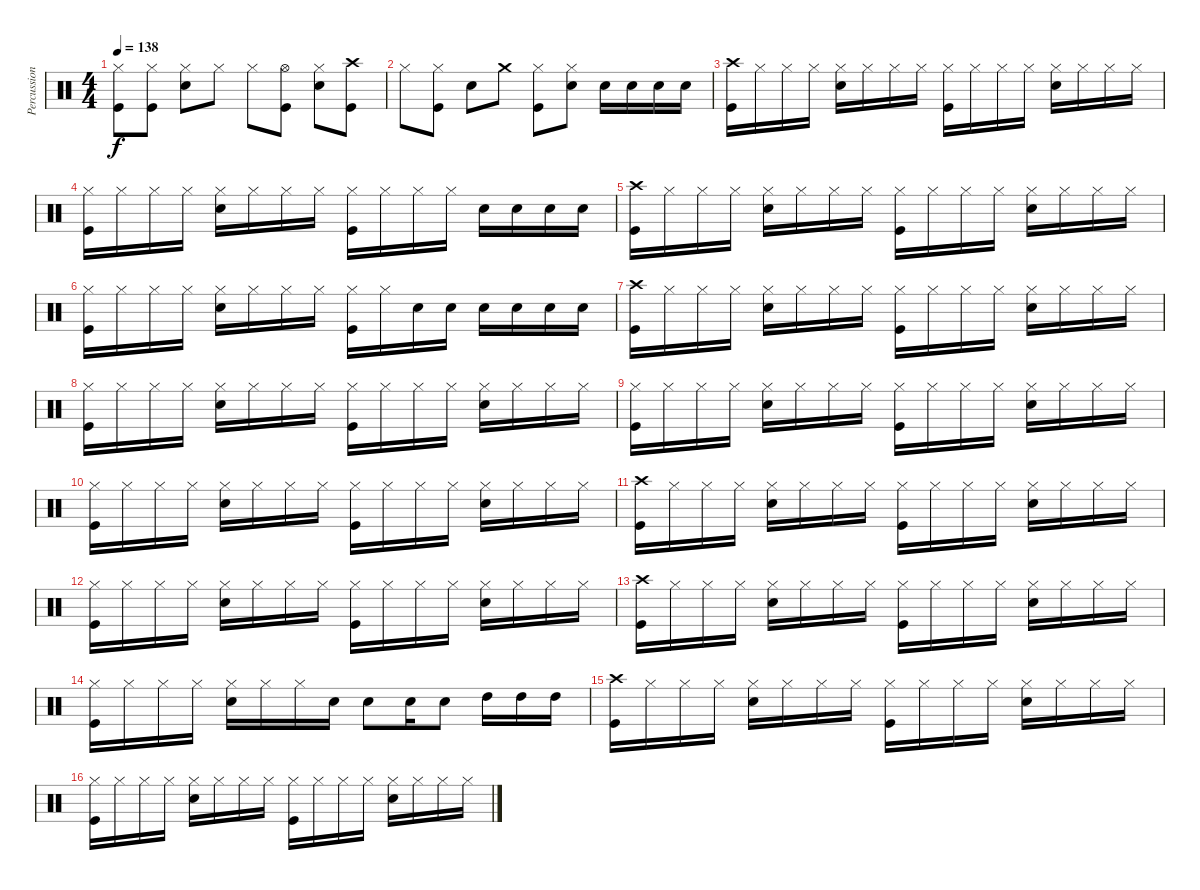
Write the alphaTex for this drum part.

\track ("Percussion" "Percussion") {instrument percussion}
\staff {score}
\articulation defaults
\ts (4 4)
\tempo 138
\clef neutral
\ks c
("Hi-Hat (closed)" "Kick (hit)").8{dy f} ("Hi-Hat (closed)" "Kick (hit)").8 ("Hi-Hat (closed)" "Snare (hit) 2").8 "Hi-Hat (closed)".8 "Hi-Hat (closed)".8 ("Hi-Hat (open)" "Kick (hit)").8 ("Hi-Hat (closed)" "Snare (hit) 2").8 ("Crash high (hit)" "Kick (hit)").8 |
"Hi-Hat (closed)".8 ("Kick (hit)" "Hi-Hat (closed)").8 "Snare (hit) 2".8 "Crash medium (hit)".8 ("Kick (hit)" "Hi-Hat (closed)").8 ("Snare (hit) 2" "Hi-Hat (closed)").8 "Snare (hit) 2".16 "Snare (hit) 2".16 "Snare (hit) 2".16 "Snare (hit) 2".16 |
("Kick (hit)" "Crash high (hit)").16 "Hi-Hat (closed)".16 "Hi-Hat (closed)".16 "Hi-Hat (closed)".16 ("Snare (hit) 2" "Hi-Hat (closed)").16 "Hi-Hat (closed)".16 "Hi-Hat (closed)".16 "Hi-Hat (closed)".16 ("Kick (hit)" "Hi-Hat (closed)").16 "Hi-Hat (closed)".16 "Hi-Hat (closed)".16 "Hi-Hat (closed)".16 ("Snare (hit) 2" "Hi-Hat (closed)").16 "Hi-Hat (closed)".16 "Hi-Hat (closed)".16 "Hi-Hat (closed)".16 |
("Kick (hit)" "Hi-Hat (closed)").16 "Hi-Hat (closed)".16 "Hi-Hat (closed)".16 "Hi-Hat (closed)".16 ("Snare (hit) 2" "Hi-Hat (closed)").16 "Hi-Hat (closed)".16 "Hi-Hat (closed)".16 "Hi-Hat (closed)".16 ("Kick (hit)" "Hi-Hat (closed)").16 "Hi-Hat (closed)".16 "Hi-Hat (closed)".16 "Hi-Hat (closed)".16 "Snare (hit) 2".16 "Snare (hit) 2".16 "Snare (hit) 2".16 "Snare (hit) 2".16 |
("Kick (hit)" "Crash high (hit)").16 "Hi-Hat (closed)".16 "Hi-Hat (closed)".16 "Hi-Hat (closed)".16 ("Snare (hit) 2" "Hi-Hat (closed)").16 "Hi-Hat (closed)".16 "Hi-Hat (closed)".16 "Hi-Hat (closed)".16 ("Kick (hit)" "Hi-Hat (closed)").16 "Hi-Hat (closed)".16 "Hi-Hat (closed)".16 "Hi-Hat (closed)".16 ("Snare (hit) 2" "Hi-Hat (closed)").16 "Hi-Hat (closed)".16 "Hi-Hat (closed)".16 "Hi-Hat (closed)".16 |
("Kick (hit)" "Hi-Hat (closed)").16 "Hi-Hat (closed)".16 "Hi-Hat (closed)".16 "Hi-Hat (closed)".16 ("Snare (hit) 2" "Hi-Hat (closed)").16 "Hi-Hat (closed)".16 "Hi-Hat (closed)".16 "Hi-Hat (closed)".16 ("Kick (hit)" "Hi-Hat (closed)").16 "Hi-Hat (closed)".16 "Snare (hit) 2".16 "Snare (hit) 2".16 "Snare (hit) 2".16 "Snare (hit) 2".16 "Snare (hit) 2".16 "Snare (hit) 2".16 |
("Kick (hit)" "Crash high (hit)").16 "Hi-Hat (closed)".16 "Hi-Hat (closed)".16 "Hi-Hat (closed)".16 ("Snare (hit) 2" "Hi-Hat (closed)").16 "Hi-Hat (closed)".16 "Hi-Hat (closed)".16 "Hi-Hat (closed)".16 ("Kick (hit)" "Hi-Hat (closed)").16 "Hi-Hat (closed)".16 "Hi-Hat (closed)".16 "Hi-Hat (closed)".16 ("Snare (hit) 2" "Hi-Hat (closed)").16 "Hi-Hat (closed)".16 "Hi-Hat (closed)".16 "Hi-Hat (closed)".16 |
("Kick (hit)" "Hi-Hat (closed)").16 "Hi-Hat (closed)".16 "Hi-Hat (closed)".16 "Hi-Hat (closed)".16 ("Snare (hit) 2" "Hi-Hat (closed)").16 "Hi-Hat (closed)".16 "Hi-Hat (closed)".16 "Hi-Hat (closed)".16 ("Kick (hit)" "Hi-Hat (closed)").16 "Hi-Hat (closed)".16 "Hi-Hat (closed)".16 "Hi-Hat (closed)".16 ("Snare (hit) 2" "Hi-Hat (closed)").16 "Hi-Hat (closed)".16 "Hi-Hat (closed)".16 "Hi-Hat (closed)".16 |
("Kick (hit)" "Hi-Hat (closed)").16 "Hi-Hat (closed)".16 "Hi-Hat (closed)".16 "Hi-Hat (closed)".16 ("Snare (hit) 2" "Hi-Hat (closed)").16 "Hi-Hat (closed)".16 "Hi-Hat (closed)".16 "Hi-Hat (closed)".16 ("Kick (hit)" "Hi-Hat (closed)").16 "Hi-Hat (closed)".16 "Hi-Hat (closed)".16 "Hi-Hat (closed)".16 ("Snare (hit) 2" "Hi-Hat (closed)").16 "Hi-Hat (closed)".16 "Hi-Hat (closed)".16 "Hi-Hat (closed)".16 |
("Kick (hit)" "Hi-Hat (closed)").16 "Hi-Hat (closed)".16 "Hi-Hat (closed)".16 "Hi-Hat (closed)".16 ("Snare (hit) 2" "Hi-Hat (closed)").16 "Hi-Hat (closed)".16 "Hi-Hat (closed)".16 "Hi-Hat (closed)".16 ("Kick (hit)" "Hi-Hat (closed)").16 "Hi-Hat (closed)".16 "Hi-Hat (closed)".16 "Hi-Hat (closed)".16 ("Snare (hit) 2" "Hi-Hat (closed)").16 "Hi-Hat (closed)".16 "Hi-Hat (closed)".16 "Hi-Hat (closed)".16 |
("Kick (hit)" "Crash high (hit)").16 "Hi-Hat (closed)".16 "Hi-Hat (closed)".16 "Hi-Hat (closed)".16 ("Snare (hit) 2" "Hi-Hat (closed)").16 "Hi-Hat (closed)".16 "Hi-Hat (closed)".16 "Hi-Hat (closed)".16 ("Kick (hit)" "Hi-Hat (closed)").16 "Hi-Hat (closed)".16 "Hi-Hat (closed)".16 "Hi-Hat (closed)".16 ("Snare (hit) 2" "Hi-Hat (closed)").16 "Hi-Hat (closed)".16 "Hi-Hat (closed)".16 "Hi-Hat (closed)".16 |
("Kick (hit)" "Hi-Hat (closed)").16 "Hi-Hat (closed)".16 "Hi-Hat (closed)".16 "Hi-Hat (closed)".16 ("Snare (hit) 2" "Hi-Hat (closed)").16 "Hi-Hat (closed)".16 "Hi-Hat (closed)".16 "Hi-Hat (closed)".16 ("Kick (hit)" "Hi-Hat (closed)").16 "Hi-Hat (closed)".16 "Hi-Hat (closed)".16 "Hi-Hat (closed)".16 ("Snare (hit) 2" "Hi-Hat (closed)").16 "Hi-Hat (closed)".16 "Hi-Hat (closed)".16 "Hi-Hat (closed)".16 |
("Kick (hit)" "Crash high (hit)").16 "Hi-Hat (closed)".16 "Hi-Hat (closed)".16 "Hi-Hat (closed)".16 ("Snare (hit) 2" "Hi-Hat (closed)").16 "Hi-Hat (closed)".16 "Hi-Hat (closed)".16 "Hi-Hat (closed)".16 ("Kick (hit)" "Hi-Hat (closed)").16 "Hi-Hat (closed)".16 "Hi-Hat (closed)".16 "Hi-Hat (closed)".16 ("Snare (hit) 2" "Hi-Hat (closed)").16 "Hi-Hat (closed)".16 "Hi-Hat (closed)".16 "Hi-Hat (closed)".16 |
("Kick (hit)" "Hi-Hat (closed)").16 "Hi-Hat (closed)".16 "Hi-Hat (closed)".16 "Hi-Hat (closed)".16 ("Snare (hit) 2" "Hi-Hat (closed)").16 "Hi-Hat (closed)".16 "Hi-Hat (closed)".16 "Snare (hit) 2".16 "Snare (hit) 2".8 "Snare (hit) 2".16 "Snare (hit) 2".8 "High Tom (hit)".16 "High Tom (hit)".16 "High Tom (hit)".16 |
("Kick (hit)" "Crash high (hit)").16 "Hi-Hat (closed)".16 "Hi-Hat (closed)".16 "Hi-Hat (closed)".16 ("Snare (hit) 2" "Hi-Hat (closed)").16 "Hi-Hat (closed)".16 "Hi-Hat (closed)".16 "Hi-Hat (closed)".16 ("Kick (hit)" "Hi-Hat (closed)").16 "Hi-Hat (closed)".16 "Hi-Hat (closed)".16 "Hi-Hat (closed)".16 ("Snare (hit) 2" "Hi-Hat (closed)").16 "Hi-Hat (closed)".16 "Hi-Hat (closed)".16 "Hi-Hat (closed)".16 |
("Kick (hit)" "Hi-Hat (closed)").16 "Hi-Hat (closed)".16 "Hi-Hat (closed)".16 "Hi-Hat (closed)".16 ("Snare (hit) 2" "Hi-Hat (closed)").16 "Hi-Hat (closed)".16 "Hi-Hat (closed)".16 "Hi-Hat (closed)".16 ("Kick (hit)" "Hi-Hat (closed)").16 "Hi-Hat (closed)".16 "Hi-Hat (closed)".16 "Hi-Hat (closed)".16 ("Snare (hit) 2" "Hi-Hat (closed)").16 "Hi-Hat (closed)".16 "Hi-Hat (closed)".16 "Hi-Hat (closed)".16
